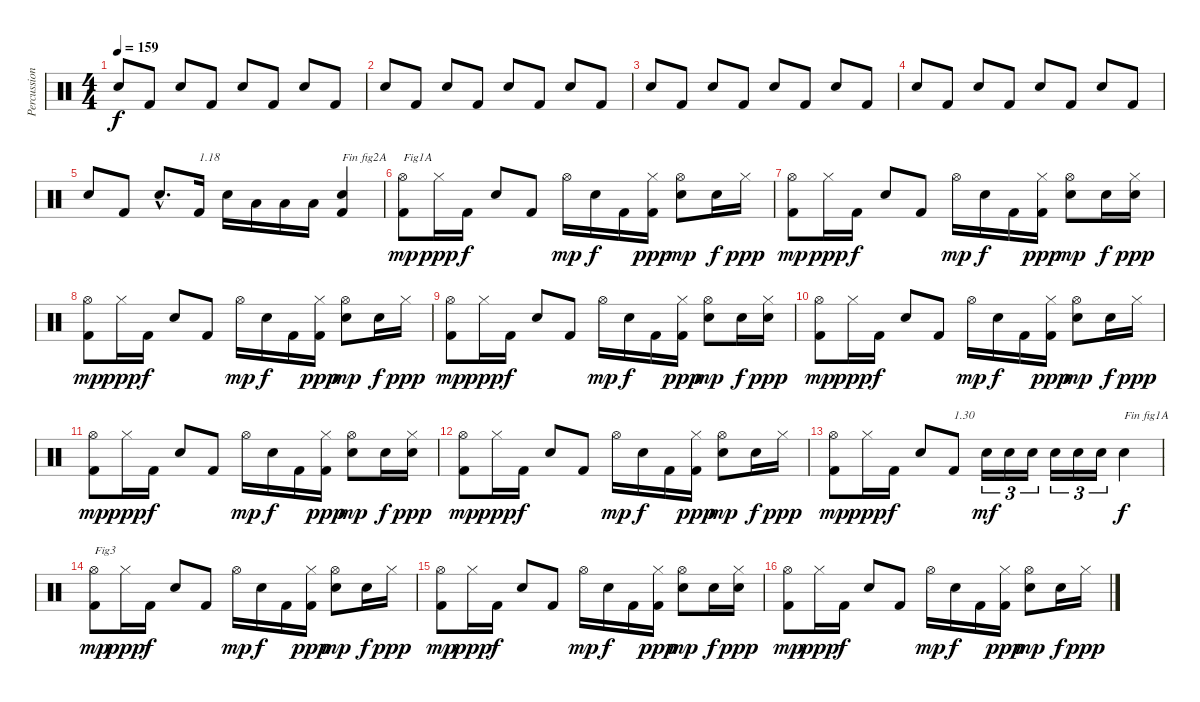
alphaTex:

\track ("Percussions" "Percussion") {instrument percussion}
\staff {score}
\articulation defaults
\ts (4 4)
\tempo 159
\clef neutral
\ks c "Electric Snare (hit)".8{dy f} "Kick (hit) 2".8 "Electric Snare (hit)".8 "Kick (hit) 2".8 "Electric Snare (hit)".8 "Kick (hit) 2".8 "Electric Snare (hit)".8 "Kick (hit) 2".8
|
"Electric Snare (hit)".8 "Kick (hit) 2".8 "Electric Snare (hit)".8 "Kick (hit) 2".8 "Electric Snare (hit)".8 "Kick (hit) 2".8 "Electric Snare (hit)".8 "Kick (hit) 2".8 |
"Electric Snare (hit)".8 "Kick (hit) 2".8 "Electric Snare (hit)".8 "Kick (hit) 2".8 "Electric Snare (hit)".8 "Kick (hit) 2".8 "Electric Snare (hit)".8 "Kick (hit) 2".8 |
"Electric Snare (hit)".8 "Kick (hit) 2".8 "Electric Snare (hit)".8 "Kick (hit) 2".8 "Electric Snare (hit)".8 "Kick (hit) 2".8 "Electric Snare (hit)".8 "Kick (hit) 2".8 |
"Electric Snare (hit)".8 "Kick (hit) 2".8 "Electric Snare (hit)"{hac}.8{d} "Kick (hit) 2".16{txt "1.18"} "Electric Snare (hit)".16 "Low Floor Tom (hit)".16 "Low Floor Tom (hit)".16 "Low Floor Tom (hit)".16 ("Kick (hit) 2" "Electric Snare (hit)").4{txt "Fin fig2A"} |
("Kick (hit) 2" "Hi-Hat (open)").8{txt "Fig1A" dy mp} "Hi-Hat (closed)".16{dy ppp} "Kick (hit) 2".16{dy f} "Electric Snare (hit)".8 "Kick (hit) 2".8 "Hi-Hat (open)".16{dy mp} "Electric Snare (hit)".16{dy f} "Kick (hit) 2".16 ("Kick (hit) 2" "Hi-Hat (closed)").16{dy ppp} ("Electric Snare (hit)" "Hi-Hat (open)").8{dy mp} "Electric Snare (hit)".16{dy f} "Hi-Hat (closed)".16{dy ppp} |
("Kick (hit) 2" "Hi-Hat (open)").8{dy mp} "Hi-Hat (closed)".16{dy ppp} "Kick (hit) 2".16{dy f} "Electric Snare (hit)".8 "Kick (hit) 2".8 "Hi-Hat (open)".16{dy mp} "Electric Snare (hit)".16{dy f} "Kick (hit) 2".16 ("Kick (hit) 2" "Hi-Hat (closed)").16{dy ppp} ("Electric Snare (hit)" "Hi-Hat (open)").8{dy mp} "Electric Snare (hit)".16{dy f} ("Electric Snare (hit)" "Hi-Hat (closed)").16{dy ppp} |
("Kick (hit) 2" "Hi-Hat (open)").8{dy mp} "Hi-Hat (closed)".16{dy ppp} "Kick (hit) 2".16{dy f} "Electric Snare (hit)".8 "Kick (hit) 2".8 "Hi-Hat (open)".16{dy mp} "Electric Snare (hit)".16{dy f} "Kick (hit) 2".16 ("Kick (hit) 2" "Hi-Hat (closed)").16{dy ppp} ("Electric Snare (hit)" "Hi-Hat (open)").8{dy mp} "Electric Snare (hit)".16{dy f} "Hi-Hat (closed)".16{dy ppp} |
("Kick (hit) 2" "Hi-Hat (open)").8{dy mp} "Hi-Hat (closed)".16{dy ppp} "Kick (hit) 2".16{dy f} "Electric Snare (hit)".8 "Kick (hit) 2".8 "Hi-Hat (open)".16{dy mp} "Electric Snare (hit)".16{dy f} "Kick (hit) 2".16 ("Kick (hit) 2" "Hi-Hat (closed)").16{dy ppp} ("Electric Snare (hit)" "Hi-Hat (open)").8{dy mp} "Electric Snare (hit)".16{dy f} ("Electric Snare (hit)" "Hi-Hat (closed)").16{dy ppp} |
("Kick (hit) 2" "Hi-Hat (open)").8{dy mp} "Hi-Hat (closed)".16{dy ppp} "Kick (hit) 2".16{dy f} "Electric Snare (hit)".8 "Kick (hit) 2".8 "Hi-Hat (open)".16{dy mp} "Electric Snare (hit)".16{dy f} "Kick (hit) 2".16 ("Kick (hit) 2" "Hi-Hat (closed)").16{dy ppp} ("Electric Snare (hit)" "Hi-Hat (open)").8{dy mp} "Electric Snare (hit)".16{dy f} "Hi-Hat (closed)".16{dy ppp} |
("Kick (hit) 2" "Hi-Hat (open)").8{dy mp} "Hi-Hat (closed)".16{dy ppp} "Kick (hit) 2".16{dy f} "Electric Snare (hit)".8 "Kick (hit) 2".8 "Hi-Hat (open)".16{dy mp} "Electric Snare (hit)".16{dy f} "Kick (hit) 2".16 ("Kick (hit) 2" "Hi-Hat (closed)").16{dy ppp} ("Electric Snare (hit)" "Hi-Hat (open)").8{dy mp} "Electric Snare (hit)".16{dy f} ("Electric Snare (hit)" "Hi-Hat (closed)").16{dy ppp} |
("Kick (hit) 2" "Hi-Hat (open)").8{dy mp} "Hi-Hat (closed)".16{dy ppp} "Kick (hit) 2".16{dy f} "Electric Snare (hit)".8 "Kick (hit) 2".8 "Hi-Hat (open)".16{dy mp} "Electric Snare (hit)".16{dy f} "Kick (hit) 2".16 ("Kick (hit) 2" "Hi-Hat (closed)").16{dy ppp} ("Electric Snare (hit)" "Hi-Hat (open)").8{dy mp} "Electric Snare (hit)".16{dy f} "Hi-Hat (closed)".16{dy ppp} |
("Kick (hit) 2" "Hi-Hat (open)").8{dy mp} "Hi-Hat (closed)".16{dy ppp} "Kick (hit) 2".16{dy f} "Electric Snare (hit)".8 "Kick (hit) 2".8{txt "1.30"} "Electric Snare (hit)".16{tu (3 2) dy mf} "Electric Snare (hit)".16{tu (3 2)} "Electric Snare (hit)".16{tu (3 2)} "Electric Snare (hit)".16{tu (3 2)} "Electric Snare (hit)".16{tu (3 2)} "Electric Snare (hit)".16{tu (3 2)} "Electric Snare (hit)".4{txt "Fin fig1A" dy f} |
("Kick (hit) 2" "Hi-Hat (open)").8{txt "Fig3" dy mp} "Hi-Hat (closed)".16{dy ppp} "Kick (hit) 2".16{dy f} "Electric Snare (hit)".8 "Kick (hit) 2".8 "Hi-Hat (open)".16{dy mp} "Electric Snare (hit)".16{dy f} "Kick (hit) 2".16 ("Kick (hit) 2" "Hi-Hat (closed)").16{dy ppp} ("Electric Snare (hit)" "Hi-Hat (open)").8{dy mp} "Electric Snare (hit)".16{dy f} "Hi-Hat (closed)".16{dy ppp} |
("Kick (hit) 2" "Hi-Hat (open)").8{dy mp} "Hi-Hat (closed)".16{dy ppp} "Kick (hit) 2".16{dy f} "Electric Snare (hit)".8 "Kick (hit) 2".8 "Hi-Hat (open)".16{dy mp} "Electric Snare (hit)".16{dy f} "Kick (hit) 2".16 ("Kick (hit) 2" "Hi-Hat (closed)").16{dy ppp} ("Electric Snare (hit)" "Hi-Hat (open)").8{dy mp} "Electric Snare (hit)".16{dy f} ("Electric Snare (hit)" "Hi-Hat (closed)").16{dy ppp} |
("Kick (hit) 2" "Hi-Hat (open)").8{dy mp} "Hi-Hat (closed)".16{dy ppp} "Kick (hit) 2".16{dy f} "Electric Snare (hit)".8 "Kick (hit) 2".8 "Hi-Hat (open)".16{dy mp} "Electric Snare (hit)".16{dy f} "Kick (hit) 2".16 ("Kick (hit) 2" "Hi-Hat (closed)").16{dy ppp} ("Electric Snare (hit)" "Hi-Hat (open)").8{dy mp} "Electric Snare (hit)".16{dy f} "Hi-Hat (closed)".16{dy ppp}
